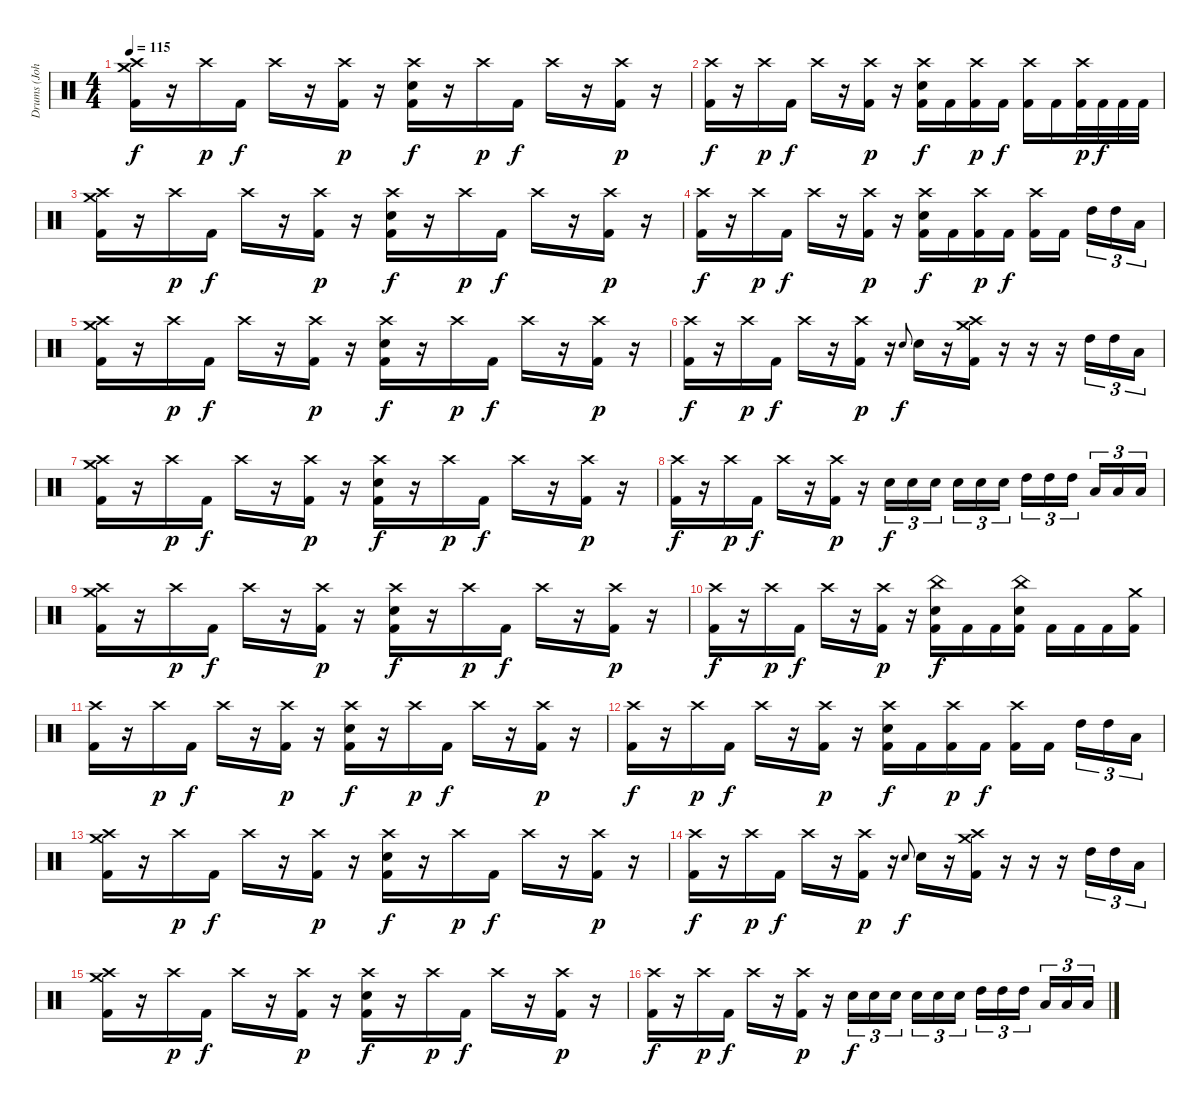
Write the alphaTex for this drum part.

\track ("Drums (Johno)" "Drums (Joh") {instrument percussion}
\staff {score}
\articulation defaults
\ts (4 4)
\tempo 115
\clef neutral
\ks c
("Crash high (hit)" "Crash medium (hit)" "Kick (hit) 2").16{dy f} r.16 "Crash high (hit)".16{dy p} "Kick (hit) 2".16{dy f} "Crash high (hit)".16 r.16 ("Crash high (hit)" "Kick (hit) 2").16{dy p} r.16 ("Crash high (hit)" "Electric Snare (hit)" "Kick (hit) 2").16{dy f} r.16 "Crash high (hit)".16{dy p} "Kick (hit) 2".16{dy f} "Crash high (hit)".16 r.16 ("Crash high (hit)" "Kick (hit) 2").16{dy p} r.16 |
("Crash high (hit)" "Kick (hit) 2").16{dy f} r.16 "Crash high (hit)".16{dy p} "Kick (hit) 2".16{dy f} "Crash high (hit)".16 r.16 ("Crash high (hit)" "Kick (hit) 2").16{dy p} r.16 ("Crash high (hit)" "Electric Snare (hit)" "Kick (hit) 2").16{dy f} "Kick (hit) 2".16 ("Crash high (hit)" "Kick (hit) 2").16{dy p} "Kick (hit) 2".16{dy f} ("Crash high (hit)" "Kick (hit) 2").16 "Kick (hit) 2".16 ("Crash high (hit)" "Kick (hit) 2").32{dy p} "Kick (hit) 2".32{dy f} "Kick (hit) 2".32 "Kick (hit) 2".32 |
("Crash high (hit)" "Crash medium (hit)" "Kick (hit) 2").16 r.16 "Crash high (hit)".16{dy p} "Kick (hit) 2".16{dy f} "Crash high (hit)".16 r.16 ("Crash high (hit)" "Kick (hit) 2").16{dy p} r.16 ("Crash high (hit)" "Electric Snare (hit)" "Kick (hit) 2").16{dy f} r.16 "Crash high (hit)".16{dy p} "Kick (hit) 2".16{dy f} "Crash high (hit)".16 r.16 ("Crash high (hit)" "Kick (hit) 2").16{dy p} r.16 |
("Crash high (hit)" "Kick (hit) 2").16{dy f} r.16 "Crash high (hit)".16{dy p} "Kick (hit) 2".16{dy f} "Crash high (hit)".16 r.16 ("Crash high (hit)" "Kick (hit) 2").16{dy p} r.16 ("Crash high (hit)" "Electric Snare (hit)" "Kick (hit) 2").16{dy f} "Kick (hit) 2".16 ("Crash high (hit)" "Kick (hit) 2").16{dy p} "Kick (hit) 2".16{dy f} ("Crash high (hit)" "Kick (hit) 2").16 "Kick (hit) 2".16{beam splitsecondary} "High Tom (hit)".16{tu (3 2)} "High Tom (hit)".16{tu (3 2)} "Low Floor Tom (hit)".16{tu (3 2)} |
("Crash high (hit)" "Crash medium (hit)" "Kick (hit) 2").16 r.16 "Crash high (hit)".16{dy p} "Kick (hit) 2".16{dy f} "Crash high (hit)".16 r.16 ("Crash high (hit)" "Kick (hit) 2").16{dy p} r.16 ("Crash high (hit)" "Electric Snare (hit)" "Kick (hit) 2").16{dy f} r.16 "Crash high (hit)".16{dy p} "Kick (hit) 2".16{dy f} "Crash high (hit)".16 r.16 ("Crash high (hit)" "Kick (hit) 2").16{dy p} r.16 |
("Crash high (hit)" "Kick (hit) 2").16{dy f} r.16 "Crash high (hit)".16{dy p} "Kick (hit) 2".16{dy f} "Crash high (hit)".16 r.16 ("Crash high (hit)" "Kick (hit) 2").16{dy p} r.16 "Electric Snare (hit)".8{gr onbeat dy f} "Electric Snare (hit)".16 r.16 ("Crash medium (hit)" "Crash high (hit)" "Kick (hit) 2").16 r.16 r.16 r.16 "High Tom (hit)".16{tu (3 2)} "High Tom (hit)".16{tu (3 2)} "Low Floor Tom (hit)".16{tu (3 2)} |
("Crash high (hit)" "Crash medium (hit)" "Kick (hit) 2").16 r.16 "Crash high (hit)".16{dy p} "Kick (hit) 2".16{dy f} "Crash high (hit)".16 r.16 ("Crash high (hit)" "Kick (hit) 2").16{dy p} r.16 ("Crash high (hit)" "Electric Snare (hit)" "Kick (hit) 2").16{dy f} r.16 "Crash high (hit)".16{dy p} "Kick (hit) 2".16{dy f} "Crash high (hit)".16 r.16 ("Crash high (hit)" "Kick (hit) 2").16{dy p} r.16 |
("Crash high (hit)" "Kick (hit) 2").16{dy f} r.16 "Crash high (hit)".16{dy p} "Kick (hit) 2".16{dy f} "Crash high (hit)".16 r.16 ("Crash high (hit)" "Kick (hit) 2").16{dy p} r.16 "Electric Snare (hit)".16{tu (3 2) dy f} "Electric Snare (hit)".16{tu (3 2)} "Electric Snare (hit)".16{tu (3 2) beam splitsecondary} "Electric Snare (hit)".16{tu (3 2)} "Electric Snare (hit)".16{tu (3 2)} "Electric Snare (hit)".16{tu (3 2)} "High Tom (hit)".16{tu (3 2)} "High Tom (hit)".16{tu (3 2)} "High Tom (hit)".16{tu (3 2) beam splitsecondary} "Low Floor Tom (hit)".16{tu (3 2)} "Low Floor Tom (hit)".16{tu (3 2)} "Low Floor Tom (hit)".16{tu (3 2)} |
("Crash high (hit)" "Crash medium (hit)" "Kick (hit) 2").16 r.16 "Crash high (hit)".16{dy p} "Kick (hit) 2".16{dy f} "Crash high (hit)".16 r.16 ("Crash high (hit)" "Kick (hit) 2").16{dy p} r.16 ("Crash high (hit)" "Electric Snare (hit)" "Kick (hit) 2").16{dy f} r.16 "Crash high (hit)".16{dy p} "Kick (hit) 2".16{dy f} "Crash high (hit)".16 r.16 ("Crash high (hit)" "Kick (hit) 2").16{dy p} r.16 |
("Crash high (hit)" "Kick (hit) 2").16{dy f} r.16 "Crash high (hit)".16{dy p} "Kick (hit) 2".16{dy f} "Crash high (hit)".16 r.16 ("Crash high (hit)" "Kick (hit) 2").16{dy p} r.16 ("China (hit)" "Electric Snare (hit)" "Kick (hit) 2").16{dy f} "Kick (hit) 2".16 "Kick (hit) 2".16 ("China (hit)" "Electric Snare (hit)" "Kick (hit) 2").16 "Kick (hit) 2".16 "Kick (hit) 2".16 "Kick (hit) 2".16 ("Crash medium (hit)" "Kick (hit) 2").16 |
("Crash high (hit)" "Kick (hit) 2").16 r.16 "Crash high (hit)".16{dy p} "Kick (hit) 2".16{dy f} "Crash high (hit)".16 r.16 ("Crash high (hit)" "Kick (hit) 2").16{dy p} r.16 ("Crash high (hit)" "Electric Snare (hit)" "Kick (hit) 2").16{dy f} r.16 "Crash high (hit)".16{dy p} "Kick (hit) 2".16{dy f} "Crash high (hit)".16 r.16 ("Crash high (hit)" "Kick (hit) 2").16{dy p} r.16 |
("Crash high (hit)" "Kick (hit) 2").16{dy f} r.16 "Crash high (hit)".16{dy p} "Kick (hit) 2".16{dy f} "Crash high (hit)".16 r.16 ("Crash high (hit)" "Kick (hit) 2").16{dy p} r.16 ("Crash high (hit)" "Electric Snare (hit)" "Kick (hit) 2").16{dy f} "Kick (hit) 2".16 ("Crash high (hit)" "Kick (hit) 2").16{dy p} "Kick (hit) 2".16{dy f} ("Crash high (hit)" "Kick (hit) 2").16 "Kick (hit) 2".16{beam splitsecondary} "High Tom (hit)".16{tu (3 2)} "High Tom (hit)".16{tu (3 2)} "Low Floor Tom (hit)".16{tu (3 2)} |
("Crash high (hit)" "Crash medium (hit)" "Kick (hit) 2").16 r.16 "Crash high (hit)".16{dy p} "Kick (hit) 2".16{dy f} "Crash high (hit)".16 r.16 ("Crash high (hit)" "Kick (hit) 2").16{dy p} r.16 ("Crash high (hit)" "Electric Snare (hit)" "Kick (hit) 2").16{dy f} r.16 "Crash high (hit)".16{dy p} "Kick (hit) 2".16{dy f} "Crash high (hit)".16 r.16 ("Crash high (hit)" "Kick (hit) 2").16{dy p} r.16 |
("Crash high (hit)" "Kick (hit) 2").16{dy f} r.16 "Crash high (hit)".16{dy p} "Kick (hit) 2".16{dy f} "Crash high (hit)".16 r.16 ("Crash high (hit)" "Kick (hit) 2").16{dy p} r.16 "Electric Snare (hit)".8{gr onbeat dy f} "Electric Snare (hit)".16 r.16 ("Crash medium (hit)" "Crash high (hit)" "Kick (hit) 2").16 r.16 r.16 r.16 "High Tom (hit)".16{tu (3 2)} "High Tom (hit)".16{tu (3 2)} "Low Floor Tom (hit)".16{tu (3 2)} |
("Crash high (hit)" "Crash medium (hit)" "Kick (hit) 2").16 r.16 "Crash high (hit)".16{dy p} "Kick (hit) 2".16{dy f} "Crash high (hit)".16 r.16 ("Crash high (hit)" "Kick (hit) 2").16{dy p} r.16 ("Crash high (hit)" "Electric Snare (hit)" "Kick (hit) 2").16{dy f} r.16 "Crash high (hit)".16{dy p} "Kick (hit) 2".16{dy f} "Crash high (hit)".16 r.16 ("Crash high (hit)" "Kick (hit) 2").16{dy p} r.16 |
("Crash high (hit)" "Kick (hit) 2").16{dy f} r.16 "Crash high (hit)".16{dy p} "Kick (hit) 2".16{dy f} "Crash high (hit)".16 r.16 ("Crash high (hit)" "Kick (hit) 2").16{dy p} r.16 "Electric Snare (hit)".16{tu (3 2) dy f} "Electric Snare (hit)".16{tu (3 2)} "Electric Snare (hit)".16{tu (3 2) beam splitsecondary} "Electric Snare (hit)".16{tu (3 2)} "Electric Snare (hit)".16{tu (3 2)} "Electric Snare (hit)".16{tu (3 2)} "High Tom (hit)".16{tu (3 2)} "High Tom (hit)".16{tu (3 2)} "High Tom (hit)".16{tu (3 2) beam splitsecondary} "Low Floor Tom (hit)".16{tu (3 2)} "Low Floor Tom (hit)".16{tu (3 2)} "Low Floor Tom (hit)".16{tu (3 2)}
